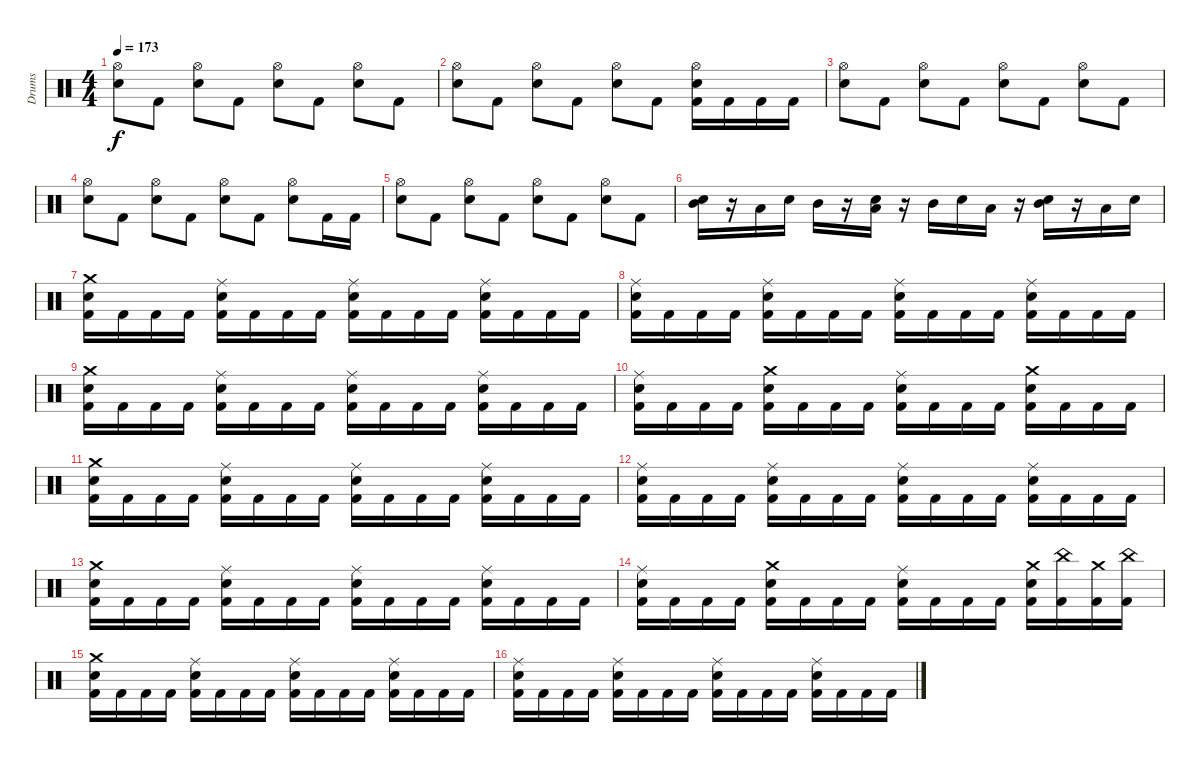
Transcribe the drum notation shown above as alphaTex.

\track ("Drums" "Drums") {instrument percussion}
\staff {score}
\articulation defaults
\ts (4 4)
\tempo 173
\clef neutral
\ks c
("Hi-Hat (open)" "Snare (hit) 2").8{dy f} "Kick (hit) 2".8 ("Hi-Hat (open)" "Snare (hit) 2").8 "Kick (hit) 2".8 ("Hi-Hat (open)" "Snare (hit) 2").8 "Kick (hit) 2".8 ("Hi-Hat (open)" "Snare (hit) 2").8 "Kick (hit) 2".8 |
("Hi-Hat (open)" "Snare (hit) 2").8 "Kick (hit) 2".8 ("Hi-Hat (open)" "Snare (hit) 2").8 "Kick (hit) 2".8 ("Hi-Hat (open)" "Snare (hit) 2").8 "Kick (hit) 2".8 ("Hi-Hat (open)" "Snare (hit) 2" "Kick (hit) 2").16 "Kick (hit) 2".16 "Kick (hit) 2".16 "Kick (hit) 2".16 |
("Hi-Hat (open)" "Snare (hit) 2").8 "Kick (hit) 2".8 ("Hi-Hat (open)" "Snare (hit) 2").8 "Kick (hit) 2".8 ("Hi-Hat (open)" "Snare (hit) 2").8 "Kick (hit) 2".8 ("Hi-Hat (open)" "Snare (hit) 2").8 "Kick (hit) 2".8 |
("Hi-Hat (open)" "Snare (hit) 2").8 "Kick (hit) 2".8 ("Hi-Hat (open)" "Snare (hit) 2").8 "Kick (hit) 2".8 ("Hi-Hat (open)" "Snare (hit) 2").8 "Kick (hit) 2".8 ("Hi-Hat (open)" "Snare (hit) 2").8 "Kick (hit) 2".16 "Kick (hit) 2".16 |
("Hi-Hat (open)" "Snare (hit) 2").8 "Kick (hit) 2".8 ("Hi-Hat (open)" "Snare (hit) 2").8 "Kick (hit) 2".8 ("Hi-Hat (open)" "Snare (hit) 2").8 "Kick (hit) 2".8 ("Hi-Hat (open)" "Snare (hit) 2").8 "Kick (hit) 2".8 |
("Mid Tom (hit)" "Snare (hit) 2").16 r.16 "Low Tom (hit)".16 "Snare (hit) 2".16 "Mid Tom (hit)".16 r.16 ("Snare (hit) 2" "Low Tom (hit)").16 r.16 "Mid Tom (hit)".16 "Snare (hit) 2".16 "Low Tom (hit)".16 r.16 ("Mid Tom (hit)" "Snare (hit) 2").16 r.16 "Low Tom (hit)".16 "Snare (hit) 2".16 |
("Crash medium (hit)" "Snare (hit) 2" "Kick (hit) 2").16 "Kick (hit) 2".16 "Kick (hit) 2".16 "Kick (hit) 2".16 ("Ride (middle)" "Snare (hit) 2" "Kick (hit) 2").16 "Kick (hit) 2".16 "Kick (hit) 2".16 "Kick (hit) 2".16 ("Ride (middle)" "Snare (hit) 2" "Kick (hit) 2").16 "Kick (hit) 2".16 "Kick (hit) 2".16 "Kick (hit) 2".16 ("Ride (middle)" "Snare (hit) 2" "Kick (hit) 2").16 "Kick (hit) 2".16 "Kick (hit) 2".16 "Kick (hit) 2".16 |
("Ride (middle)" "Snare (hit) 2" "Kick (hit) 2").16 "Kick (hit) 2".16 "Kick (hit) 2".16 "Kick (hit) 2".16 ("Ride (middle)" "Snare (hit) 2" "Kick (hit) 2").16 "Kick (hit) 2".16 "Kick (hit) 2".16 "Kick (hit) 2".16 ("Ride (middle)" "Snare (hit) 2" "Kick (hit) 2").16 "Kick (hit) 2".16 "Kick (hit) 2".16 "Kick (hit) 2".16 ("Ride (middle)" "Snare (hit) 2" "Kick (hit) 2").16 "Kick (hit) 2".16 "Kick (hit) 2".16 "Kick (hit) 2".16 |
("Crash medium (hit)" "Snare (hit) 2" "Kick (hit) 2").16 "Kick (hit) 2".16 "Kick (hit) 2".16 "Kick (hit) 2".16 ("Ride (middle)" "Snare (hit) 2" "Kick (hit) 2").16 "Kick (hit) 2".16 "Kick (hit) 2".16 "Kick (hit) 2".16 ("Ride (middle)" "Snare (hit) 2" "Kick (hit) 2").16 "Kick (hit) 2".16 "Kick (hit) 2".16 "Kick (hit) 2".16 ("Ride (middle)" "Snare (hit) 2" "Kick (hit) 2").16 "Kick (hit) 2".16 "Kick (hit) 2".16 "Kick (hit) 2".16 |
("Ride (middle)" "Snare (hit) 2" "Kick (hit) 2").16 "Kick (hit) 2".16 "Kick (hit) 2".16 "Kick (hit) 2".16 ("Crash medium (hit)" "Snare (hit) 2" "Kick (hit) 2").16 "Kick (hit) 2".16 "Kick (hit) 2".16 "Kick (hit) 2".16 ("Ride (middle)" "Snare (hit) 2" "Kick (hit) 2").16 "Kick (hit) 2".16 "Kick (hit) 2".16 "Kick (hit) 2".16 ("Crash medium (hit)" "Snare (hit) 2" "Kick (hit) 2").16 "Kick (hit) 2".16 "Kick (hit) 2".16 "Kick (hit) 2".16 |
("Crash medium (hit)" "Snare (hit) 2" "Kick (hit) 2").16 "Kick (hit) 2".16 "Kick (hit) 2".16 "Kick (hit) 2".16 ("Ride (middle)" "Snare (hit) 2" "Kick (hit) 2").16 "Kick (hit) 2".16 "Kick (hit) 2".16 "Kick (hit) 2".16 ("Ride (middle)" "Snare (hit) 2" "Kick (hit) 2").16 "Kick (hit) 2".16 "Kick (hit) 2".16 "Kick (hit) 2".16 ("Ride (middle)" "Snare (hit) 2" "Kick (hit) 2").16 "Kick (hit) 2".16 "Kick (hit) 2".16 "Kick (hit) 2".16 |
("Ride (middle)" "Snare (hit) 2" "Kick (hit) 2").16 "Kick (hit) 2".16 "Kick (hit) 2".16 "Kick (hit) 2".16 ("Ride (middle)" "Snare (hit) 2" "Kick (hit) 2").16 "Kick (hit) 2".16 "Kick (hit) 2".16 "Kick (hit) 2".16 ("Ride (middle)" "Snare (hit) 2" "Kick (hit) 2").16 "Kick (hit) 2".16 "Kick (hit) 2".16 "Kick (hit) 2".16 ("Ride (middle)" "Snare (hit) 2" "Kick (hit) 2").16 "Kick (hit) 2".16 "Kick (hit) 2".16 "Kick (hit) 2".16 |
("Crash medium (hit)" "Snare (hit) 2" "Kick (hit) 2").16 "Kick (hit) 2".16 "Kick (hit) 2".16 "Kick (hit) 2".16 ("Ride (middle)" "Snare (hit) 2" "Kick (hit) 2").16 "Kick (hit) 2".16 "Kick (hit) 2".16 "Kick (hit) 2".16 ("Ride (middle)" "Snare (hit) 2" "Kick (hit) 2").16 "Kick (hit) 2".16 "Kick (hit) 2".16 "Kick (hit) 2".16 ("Ride (middle)" "Snare (hit) 2" "Kick (hit) 2").16 "Kick (hit) 2".16 "Kick (hit) 2".16 "Kick (hit) 2".16 |
("Ride (middle)" "Snare (hit) 2" "Kick (hit) 2").16 "Kick (hit) 2".16 "Kick (hit) 2".16 "Kick (hit) 2".16 ("Crash medium (hit)" "Snare (hit) 2" "Kick (hit) 2").16 "Kick (hit) 2".16 "Kick (hit) 2".16 "Kick (hit) 2".16 ("Ride (middle)" "Snare (hit) 2" "Kick (hit) 2").16 "Kick (hit) 2".16 "Kick (hit) 2".16 "Kick (hit) 2".16 ("Crash medium (hit)" "Snare (hit) 2" "Kick (hit) 2").16 ("China (hit)" "Kick (hit) 2").16 ("Crash medium (hit)" "Kick (hit) 2").16 ("China (hit)" "Kick (hit) 2").16 |
("Crash medium (hit)" "Snare (hit) 2" "Kick (hit) 2").16 "Kick (hit) 2".16 "Kick (hit) 2".16 "Kick (hit) 2".16 ("Ride (middle)" "Snare (hit) 2" "Kick (hit) 2").16 "Kick (hit) 2".16 "Kick (hit) 2".16 "Kick (hit) 2".16 ("Ride (middle)" "Snare (hit) 2" "Kick (hit) 2").16 "Kick (hit) 2".16 "Kick (hit) 2".16 "Kick (hit) 2".16 ("Ride (middle)" "Snare (hit) 2" "Kick (hit) 2").16 "Kick (hit) 2".16 "Kick (hit) 2".16 "Kick (hit) 2".16 |
("Ride (middle)" "Snare (hit) 2" "Kick (hit) 2").16 "Kick (hit) 2".16 "Kick (hit) 2".16 "Kick (hit) 2".16 ("Ride (middle)" "Snare (hit) 2" "Kick (hit) 2").16 "Kick (hit) 2".16 "Kick (hit) 2".16 "Kick (hit) 2".16 ("Ride (middle)" "Snare (hit) 2" "Kick (hit) 2").16 "Kick (hit) 2".16 "Kick (hit) 2".16 "Kick (hit) 2".16 ("Ride (middle)" "Snare (hit) 2" "Kick (hit) 2").16 "Kick (hit) 2".16 "Kick (hit) 2".16 "Kick (hit) 2".16
